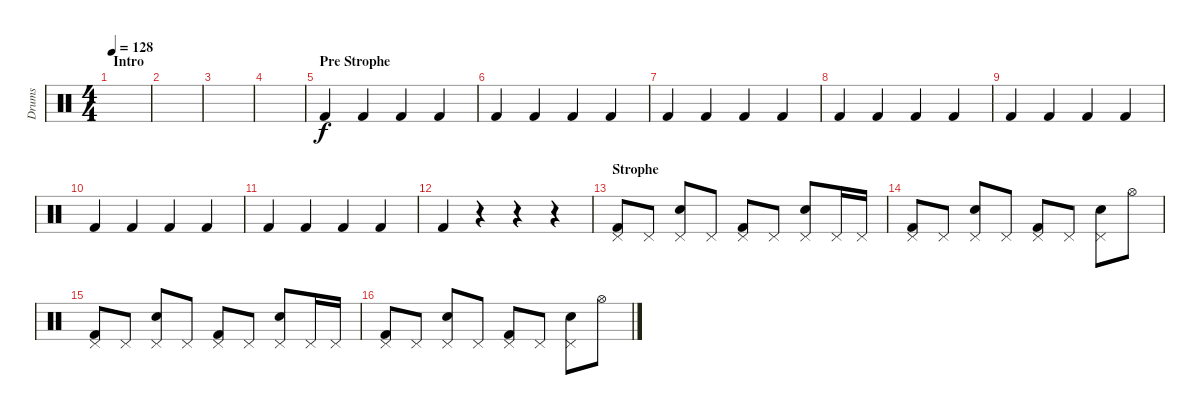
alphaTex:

\track ("Drums" "Drums") {instrument percussion}
\staff {score}
\articulation defaults
\ts (4 4)
\section ("" "Intro")
\tempo 128
\clef neutral
\ks c
|
|
|
|
\section ("" "Pre Strophe")
"Kick (hit) 2".4 "Kick (hit) 2".4 "Kick (hit) 2".4 "Kick (hit) 2".4 |
"Kick (hit) 2".4 "Kick (hit) 2".4 "Kick (hit) 2".4 "Kick (hit) 2".4 |
"Kick (hit) 2".4 "Kick (hit) 2".4 "Kick (hit) 2".4 "Kick (hit) 2".4 |
"Kick (hit) 2".4 "Kick (hit) 2".4 "Kick (hit) 2".4 "Kick (hit) 2".4 |
"Kick (hit) 2".4 "Kick (hit) 2".4 "Kick (hit) 2".4 "Kick (hit) 2".4 |
"Kick (hit) 2".4 "Kick (hit) 2".4 "Kick (hit) 2".4 "Kick (hit) 2".4 |
"Kick (hit) 2".4 "Kick (hit) 2".4 "Kick (hit) 2".4 "Kick (hit) 2".4 |
"Kick (hit) 2".4 r.4 r.4 r.4 |
\section ("" "Strophe")
("Pedal Hi-Hat (hit)" "Kick (hit) 2").8 "Pedal Hi-Hat (hit)".8 ("Pedal Hi-Hat (hit)" "Snare (hit) 2").8 "Pedal Hi-Hat (hit)".8 ("Pedal Hi-Hat (hit)" "Kick (hit) 2").8 "Pedal Hi-Hat (hit)".8 ("Pedal Hi-Hat (hit)" "Snare (hit) 2").8 "Pedal Hi-Hat (hit)".16 "Pedal Hi-Hat (hit)".16 |
("Pedal Hi-Hat (hit)" "Kick (hit) 2").8 "Pedal Hi-Hat (hit)".8 ("Pedal Hi-Hat (hit)" "Snare (hit) 2").8 "Pedal Hi-Hat (hit)".8 ("Pedal Hi-Hat (hit)" "Kick (hit) 2").8 "Pedal Hi-Hat (hit)".8 ("Pedal Hi-Hat (hit)" "Snare (hit) 2").8 "Hi-Hat (open)".8 |
("Pedal Hi-Hat (hit)" "Kick (hit) 2").8 "Pedal Hi-Hat (hit)".8 ("Pedal Hi-Hat (hit)" "Snare (hit) 2").8 "Pedal Hi-Hat (hit)".8 ("Pedal Hi-Hat (hit)" "Kick (hit) 2").8 "Pedal Hi-Hat (hit)".8 ("Pedal Hi-Hat (hit)" "Snare (hit) 2").8 "Pedal Hi-Hat (hit)".16 "Pedal Hi-Hat (hit)".16 |
("Pedal Hi-Hat (hit)" "Kick (hit) 2").8 "Pedal Hi-Hat (hit)".8 ("Pedal Hi-Hat (hit)" "Snare (hit) 2").8 "Pedal Hi-Hat (hit)".8 ("Pedal Hi-Hat (hit)" "Kick (hit) 2").8 "Pedal Hi-Hat (hit)".8 ("Pedal Hi-Hat (hit)" "Snare (hit) 2").8 "Hi-Hat (open)".8
